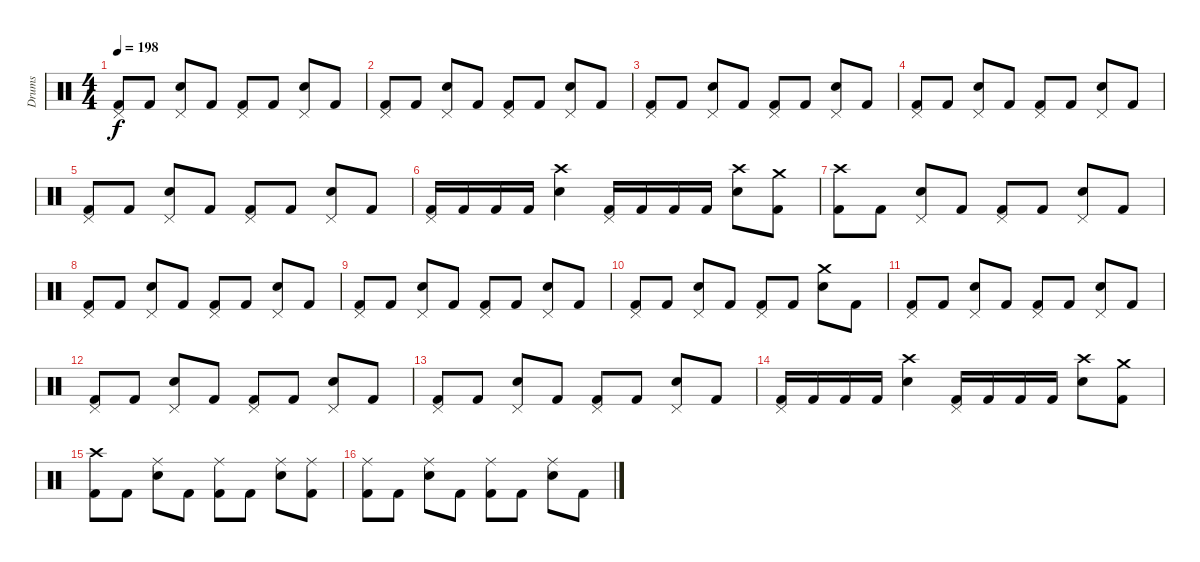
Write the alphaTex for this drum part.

\track ("Drums" "Drums") {instrument percussion}
\staff {score}
\articulation defaults
\ts (4 4)
\tempo 198
\clef neutral
\ks c
("Pedal Hi-Hat (hit)" "Kick (hit) 2").8{dy f} "Kick (hit) 2".8 ("Pedal Hi-Hat (hit)" "Electric Snare (hit)").8 "Kick (hit) 2".8 ("Pedal Hi-Hat (hit)" "Kick (hit) 2").8 "Kick (hit) 2".8 ("Pedal Hi-Hat (hit)" "Electric Snare (hit)").8 "Kick (hit) 2".8 |
("Pedal Hi-Hat (hit)" "Kick (hit) 2").8 "Kick (hit) 2".8 ("Pedal Hi-Hat (hit)" "Electric Snare (hit)").8 "Kick (hit) 2".8 ("Pedal Hi-Hat (hit)" "Kick (hit) 2").8 "Kick (hit) 2".8 ("Pedal Hi-Hat (hit)" "Electric Snare (hit)").8 "Kick (hit) 2".8 |
("Pedal Hi-Hat (hit)" "Kick (hit) 2").8 "Kick (hit) 2".8 ("Pedal Hi-Hat (hit)" "Electric Snare (hit)").8 "Kick (hit) 2".8 ("Pedal Hi-Hat (hit)" "Kick (hit) 2").8 "Kick (hit) 2".8 ("Pedal Hi-Hat (hit)" "Electric Snare (hit)").8 "Kick (hit) 2".8 |
("Pedal Hi-Hat (hit)" "Kick (hit) 2").8 "Kick (hit) 2".8 ("Pedal Hi-Hat (hit)" "Electric Snare (hit)").8 "Kick (hit) 2".8 ("Pedal Hi-Hat (hit)" "Kick (hit) 2").8 "Kick (hit) 2".8 ("Pedal Hi-Hat (hit)" "Electric Snare (hit)").8 "Kick (hit) 2".8 |
("Pedal Hi-Hat (hit)" "Kick (hit) 2").8 "Kick (hit) 2".8 ("Pedal Hi-Hat (hit)" "Electric Snare (hit)").8 "Kick (hit) 2".8 ("Pedal Hi-Hat (hit)" "Kick (hit) 2").8 "Kick (hit) 2".8 ("Pedal Hi-Hat (hit)" "Electric Snare (hit)").8 "Kick (hit) 2".8 |
("Pedal Hi-Hat (hit)" "Kick (hit) 2").16 "Kick (hit) 2".16 "Kick (hit) 2".16 "Kick (hit) 2".16 ("Crash high (hit)" "Electric Snare (hit)").4 ("Pedal Hi-Hat (hit)" "Kick (hit) 2").16 "Kick (hit) 2".16 "Kick (hit) 2".16 "Kick (hit) 2".16 ("Crash high (hit)" "Electric Snare (hit)").8 ("Crash medium (hit)" "Kick (hit) 2").8 |
("Crash high (hit)" "Kick (hit) 2").8 "Kick (hit) 2".8 ("Pedal Hi-Hat (hit)" "Electric Snare (hit)").8 "Kick (hit) 2".8 ("Pedal Hi-Hat (hit)" "Kick (hit) 2").8 "Kick (hit) 2".8 ("Pedal Hi-Hat (hit)" "Electric Snare (hit)").8 "Kick (hit) 2".8 |
("Pedal Hi-Hat (hit)" "Kick (hit) 2").8 "Kick (hit) 2".8 ("Pedal Hi-Hat (hit)" "Electric Snare (hit)").8 "Kick (hit) 2".8 ("Pedal Hi-Hat (hit)" "Kick (hit) 2").8 "Kick (hit) 2".8 ("Pedal Hi-Hat (hit)" "Electric Snare (hit)").8 "Kick (hit) 2".8 |
("Pedal Hi-Hat (hit)" "Kick (hit) 2").8 "Kick (hit) 2".8 ("Pedal Hi-Hat (hit)" "Electric Snare (hit)").8 "Kick (hit) 2".8 ("Pedal Hi-Hat (hit)" "Kick (hit) 2").8 "Kick (hit) 2".8 ("Pedal Hi-Hat (hit)" "Electric Snare (hit)").8 "Kick (hit) 2".8 |
("Pedal Hi-Hat (hit)" "Kick (hit) 2").8 "Kick (hit) 2".8 ("Pedal Hi-Hat (hit)" "Electric Snare (hit)").8 "Kick (hit) 2".8 ("Pedal Hi-Hat (hit)" "Kick (hit) 2").8 "Kick (hit) 2".8 ("Crash medium (hit)" "Electric Snare (hit)").8 "Kick (hit) 2".8 |
("Pedal Hi-Hat (hit)" "Kick (hit) 2").8 "Kick (hit) 2".8 ("Pedal Hi-Hat (hit)" "Electric Snare (hit)").8 "Kick (hit) 2".8 ("Pedal Hi-Hat (hit)" "Kick (hit) 2").8 "Kick (hit) 2".8 ("Pedal Hi-Hat (hit)" "Electric Snare (hit)").8 "Kick (hit) 2".8 |
("Pedal Hi-Hat (hit)" "Kick (hit) 2").8 "Kick (hit) 2".8 ("Pedal Hi-Hat (hit)" "Electric Snare (hit)").8 "Kick (hit) 2".8 ("Pedal Hi-Hat (hit)" "Kick (hit) 2").8 "Kick (hit) 2".8 ("Pedal Hi-Hat (hit)" "Electric Snare (hit)").8 "Kick (hit) 2".8 |
("Pedal Hi-Hat (hit)" "Kick (hit) 2").8 "Kick (hit) 2".8 ("Pedal Hi-Hat (hit)" "Electric Snare (hit)").8 "Kick (hit) 2".8 ("Pedal Hi-Hat (hit)" "Kick (hit) 2").8 "Kick (hit) 2".8 ("Pedal Hi-Hat (hit)" "Electric Snare (hit)").8 "Kick (hit) 2".8 |
("Pedal Hi-Hat (hit)" "Kick (hit) 2").16 "Kick (hit) 2".16 "Kick (hit) 2".16 "Kick (hit) 2".16 ("Crash high (hit)" "Electric Snare (hit)").4 ("Pedal Hi-Hat (hit)" "Kick (hit) 2").16 "Kick (hit) 2".16 "Kick (hit) 2".16 "Kick (hit) 2".16 ("Crash high (hit)" "Electric Snare (hit)").8 ("Crash medium (hit)" "Kick (hit) 2").8 |
("Crash high (hit)" "Kick (hit) 2").8 "Kick (hit) 2".8 ("Ride (middle)" "Electric Snare (hit)").8 "Kick (hit) 2".8 ("Ride (middle)" "Kick (hit) 2").8 "Kick (hit) 2".8 ("Ride (middle)" "Electric Snare (hit)").8 ("Ride (middle)" "Kick (hit) 2").8 |
("Ride (middle)" "Kick (hit) 2").8 "Kick (hit) 2".8 ("Ride (middle)" "Electric Snare (hit)").8 "Kick (hit) 2".8 ("Ride (middle)" "Kick (hit) 2").8 "Kick (hit) 2".8 ("Ride (middle)" "Electric Snare (hit)").8 "Kick (hit) 2".8
